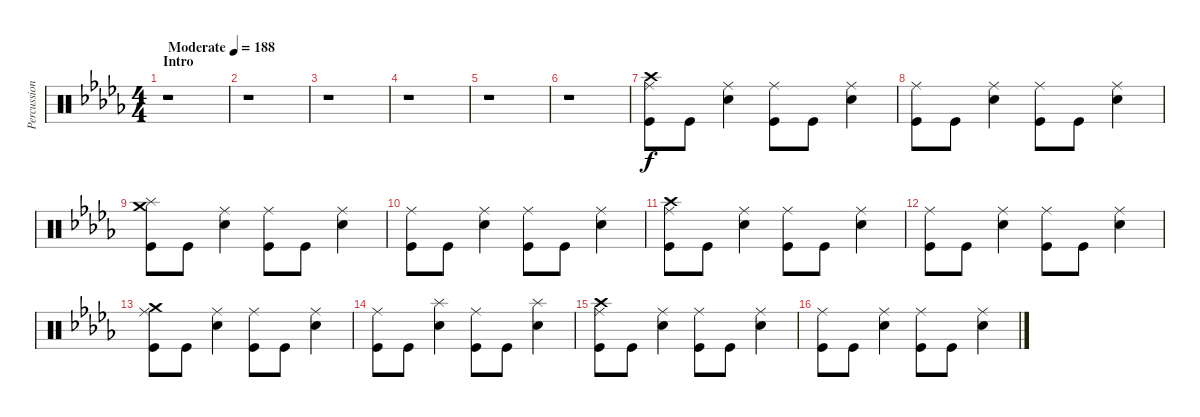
\track ("Percussion" "Percussion") {instrument percussion}
\staff {score}
\articulation defaults
\ts (4 4)
\section ("" "Intro")
\tempo (188 "Moderate")
\clef neutral
\ks db
r.1{dy f} |
r.1 |
r.1 |
r.1 |
r.1 |
r.1 |
("Crash high (hit)" "Ride (middle)" "Kick (hit)").8 "Kick (hit)".8 ("Ride (middle)" "Electric Snare (hit)").4 ("Ride (middle)" "Kick (hit)").8 "Kick (hit)".8 ("Ride (middle)" "Electric Snare (hit)").4 |
("Ride (middle)" "Kick (hit)").8 "Kick (hit)".8 ("Ride (middle)" "Electric Snare (hit)").4 ("Ride (middle)" "Kick (hit)").8 "Kick (hit)".8 ("Ride (middle)" "Electric Snare (hit)").4 |
("Crash medium (hit)" "Splash (hit)" "Kick (hit)").8 "Kick (hit)".8 ("Ride (middle)" "Electric Snare (hit)").4 ("Ride (middle)" "Kick (hit)").8 "Kick (hit)".8 ("Ride (middle)" "Electric Snare (hit)").4 |
("Ride (middle)" "Kick (hit)").8 "Kick (hit)".8 ("Ride (middle)" "Electric Snare (hit)").4 ("Ride (middle)" "Kick (hit)").8 "Kick (hit)".8 ("Ride (middle)" "Electric Snare (hit)").4 |
("Crash high (hit)" "Ride (middle)" "Kick (hit)").8 "Kick (hit)".8 ("Ride (middle)" "Electric Snare (hit)").4 ("Ride (middle)" "Kick (hit)").8 "Kick (hit)".8 ("Ride (middle)" "Electric Snare (hit)").4 |
("Ride (middle)" "Kick (hit)").8 "Kick (hit)".8 ("Ride (middle)" "Electric Snare (hit)").4 ("Ride (middle)" "Kick (hit)").8 "Kick (hit)".8 ("Ride (middle)" "Electric Snare (hit)").4 |
("Crash medium (hit)" "Ride (middle)" "Kick (hit)").8 "Kick (hit)".8 ("Ride (middle)" "Electric Snare (hit)").4 ("Ride (middle)" "Kick (hit)").8 "Kick (hit)".8 ("Ride (middle)" "Electric Snare (hit)").4 |
("Ride (middle)" "Kick (hit)").8 "Kick (hit)".8 ("Splash (hit)" "Electric Snare (hit)").4 ("Ride (middle)" "Kick (hit)").8 "Kick (hit)".8 ("Splash (hit)" "Electric Snare (hit)").4 |
("Crash high (hit)" "Ride (middle)" "Kick (hit)").8 "Kick (hit)".8 ("Ride (middle)" "Electric Snare (hit)").4 ("Ride (middle)" "Kick (hit)").8 "Kick (hit)".8 ("Ride (middle)" "Electric Snare (hit)").4 |
("Ride (middle)" "Kick (hit)").8 "Kick (hit)".8 ("Ride (middle)" "Electric Snare (hit)").4 ("Ride (middle)" "Kick (hit)").8 "Kick (hit)".8 ("Ride (middle)" "Electric Snare (hit)").4
